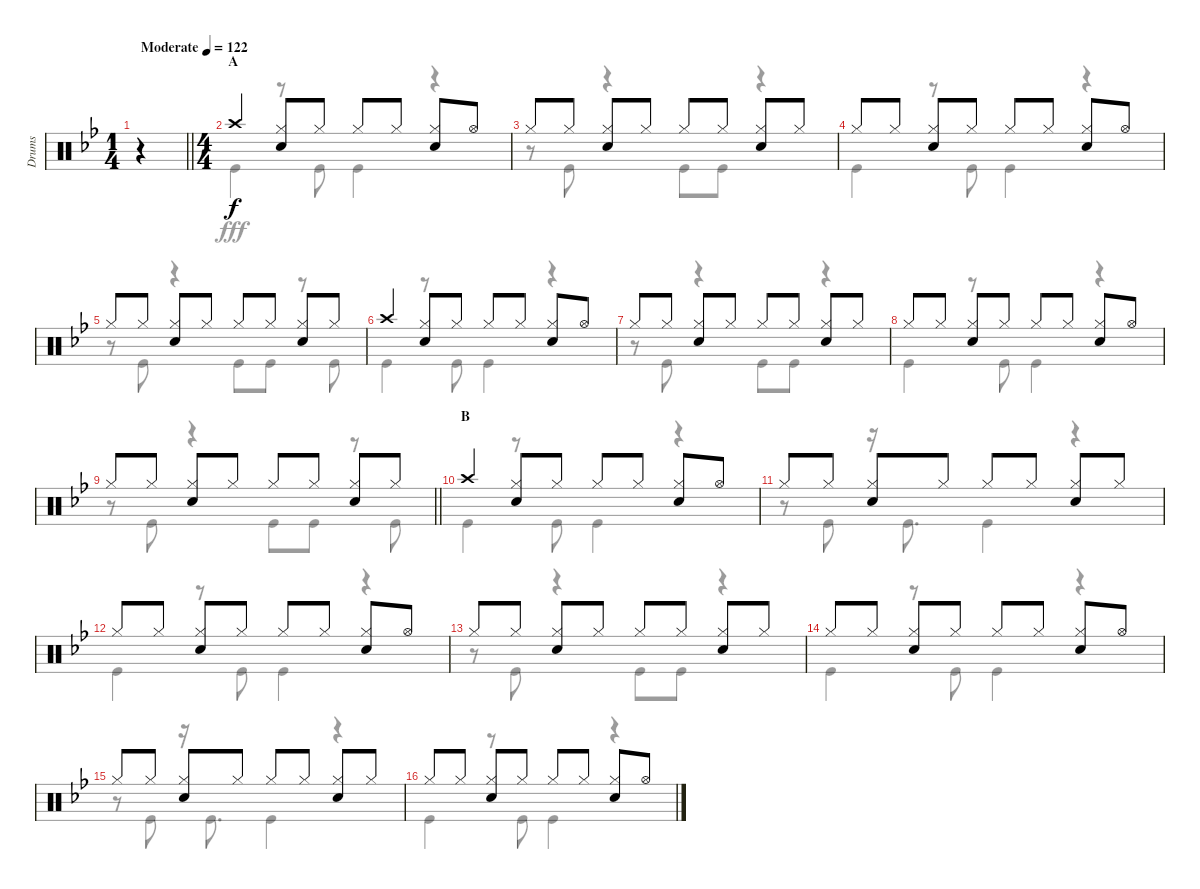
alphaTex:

\track ("Drums" "Drums") {instrument percussion}
\staff {score}
\articulation defaults
\voice
\ts (1 4)
\tempo (122 "Moderate")
\clef neutral
\barLineRight lightlight
\ks bb
r.4{dy f} |
\ts (4 4)
\section ("" "A")
"Crash high (hit)".4 ("Hi-Hat (closed)" "Snare (hit) 2").8 "Hi-Hat (closed)".8 "Hi-Hat (closed)".8 "Hi-Hat (closed)".8 ("Hi-Hat (closed)" "Snare (hit) 2").8 "Hi-Hat (open)".8 |
"Hi-Hat (closed)".8 "Hi-Hat (closed)".8 ("Hi-Hat (closed)" "Snare (hit) 2").8 "Hi-Hat (closed)".8 "Hi-Hat (closed)".8 "Hi-Hat (closed)".8 ("Hi-Hat (closed)" "Snare (hit) 2").8 "Hi-Hat (closed)".8 |
"Hi-Hat (closed)".8 "Hi-Hat (closed)".8 ("Hi-Hat (closed)" "Snare (hit) 2").8 "Hi-Hat (closed)".8 "Hi-Hat (closed)".8 "Hi-Hat (closed)".8 ("Hi-Hat (closed)" "Snare (hit) 2").8 "Hi-Hat (open)".8 |
"Hi-Hat (closed)".8 "Hi-Hat (closed)".8 ("Hi-Hat (closed)" "Snare (hit) 2").8 "Hi-Hat (closed)".8 "Hi-Hat (closed)".8 "Hi-Hat (closed)".8 ("Hi-Hat (closed)" "Snare (hit) 2").8 "Hi-Hat (closed)".8 |
"Crash high (hit)".4 ("Hi-Hat (closed)" "Snare (hit) 2").8 "Hi-Hat (closed)".8 "Hi-Hat (closed)".8 "Hi-Hat (closed)".8 ("Hi-Hat (closed)" "Snare (hit) 2").8 "Hi-Hat (open)".8 |
"Hi-Hat (closed)".8 "Hi-Hat (closed)".8 ("Hi-Hat (closed)" "Snare (hit) 2").8 "Hi-Hat (closed)".8 "Hi-Hat (closed)".8 "Hi-Hat (closed)".8 ("Hi-Hat (closed)" "Snare (hit) 2").8 "Hi-Hat (closed)".8 |
"Hi-Hat (closed)".8 "Hi-Hat (closed)".8 ("Hi-Hat (closed)" "Snare (hit) 2").8 "Hi-Hat (closed)".8 "Hi-Hat (closed)".8 "Hi-Hat (closed)".8 ("Hi-Hat (closed)" "Snare (hit) 2").8 "Hi-Hat (open)".8 |
\barLineRight lightlight "Hi-Hat (closed)".8 "Hi-Hat (closed)".8
("Hi-Hat (closed)" "Snare (hit) 2").8 "Hi-Hat (closed)".8 "Hi-Hat (closed)".8 "Hi-Hat (closed)".8 ("Hi-Hat (closed)" "Snare (hit) 2").8 "Hi-Hat (closed)".8 |
\section ("" "B")
"Crash high (hit)".4 ("Hi-Hat (closed)" "Snare (hit) 2").8 "Hi-Hat (closed)".8 "Hi-Hat (closed)".8 "Hi-Hat (closed)".8 ("Hi-Hat (closed)" "Snare (hit) 2").8 "Hi-Hat (open)".8 |
"Hi-Hat (closed)".8 "Hi-Hat (closed)".8 ("Hi-Hat (closed)" "Snare (hit) 2").8 "Hi-Hat (closed)".8 "Hi-Hat (closed)".8 "Hi-Hat (closed)".8 ("Hi-Hat (closed)" "Snare (hit) 2").8 "Hi-Hat (closed)".8 |
"Hi-Hat (closed)".8 "Hi-Hat (closed)".8 ("Hi-Hat (closed)" "Snare (hit) 2").8 "Hi-Hat (closed)".8 "Hi-Hat (closed)".8 "Hi-Hat (closed)".8 ("Hi-Hat (closed)" "Snare (hit) 2").8 "Hi-Hat (open)".8 |
"Hi-Hat (closed)".8 "Hi-Hat (closed)".8 ("Hi-Hat (closed)" "Snare (hit) 2").8 "Hi-Hat (closed)".8 "Hi-Hat (closed)".8 "Hi-Hat (closed)".8 ("Hi-Hat (closed)" "Snare (hit) 2").8 "Hi-Hat (closed)".8 |
"Hi-Hat (closed)".8 "Hi-Hat (closed)".8 ("Hi-Hat (closed)" "Snare (hit) 2").8 "Hi-Hat (closed)".8 "Hi-Hat (closed)".8 "Hi-Hat (closed)".8 ("Hi-Hat (closed)" "Snare (hit) 2").8 "Hi-Hat (open)".8 |
"Hi-Hat (closed)".8 "Hi-Hat (closed)".8 ("Hi-Hat (closed)" "Snare (hit) 2").8 "Hi-Hat (closed)".8 "Hi-Hat (closed)".8 "Hi-Hat (closed)".8 ("Hi-Hat (closed)" "Snare (hit) 2").8 "Hi-Hat (closed)".8 |
"Hi-Hat (closed)".8 "Hi-Hat (closed)".8 ("Hi-Hat (closed)" "Snare (hit) 2").8 "Hi-Hat (closed)".8 "Hi-Hat (closed)".8 "Hi-Hat (closed)".8 ("Hi-Hat (closed)" "Snare (hit) 2").8 "Hi-Hat (open)".8
\voice
\clef neutral
\ottava regular
\simile none
\barLineRight lightlight
\ks bb
r.4{dy fff} |
"Kick (hit)".4 r.8 "Kick (hit)".8 "Kick (hit)".4 r.4 |
r.8 "Kick (hit)".8 r.4 "Kick (hit)".8 "Kick (hit)".8 r.4 |
"Kick (hit)".4 r.8 "Kick (hit)".8 "Kick (hit)".4 r.4 |
r.8 "Kick (hit)".8 r.4 "Kick (hit)".8 "Kick (hit)".8 r.8 "Kick (hit)".8 |
"Kick (hit)".4 r.8 "Kick (hit)".8 "Kick (hit)".4 r.4 |
r.8 "Kick (hit)".8 r.4 "Kick (hit)".8 "Kick (hit)".8 r.4 |
"Kick (hit)".4 r.8 "Kick (hit)".8 "Kick (hit)".4 r.4 |
\barLineRight lightlight
r.8 "Kick (hit)".8 r.4 "Kick (hit)".8 "Kick (hit)".8 r.8 "Kick (hit)".8 |
"Kick (hit)".4 r.8 "Kick (hit)".8 "Kick (hit)".4 r.4 |
r.8 "Kick (hit)".8 r.16 "Kick (hit)".8{d} "Kick (hit)".4 r.4 |
"Kick (hit)".4 r.8 "Kick (hit)".8 "Kick (hit)".4 r.4 |
r.8 "Kick (hit)".8 r.4 "Kick (hit)".8 "Kick (hit)".8 r.4 |
"Kick (hit)".4 r.8 "Kick (hit)".8 "Kick (hit)".4 r.4 |
r.8 "Kick (hit)".8 r.16 "Kick (hit)".8{d} "Kick (hit)".4 r.4 |
"Kick (hit)".4 r.8 "Kick (hit)".8 "Kick (hit)".4 r.4
